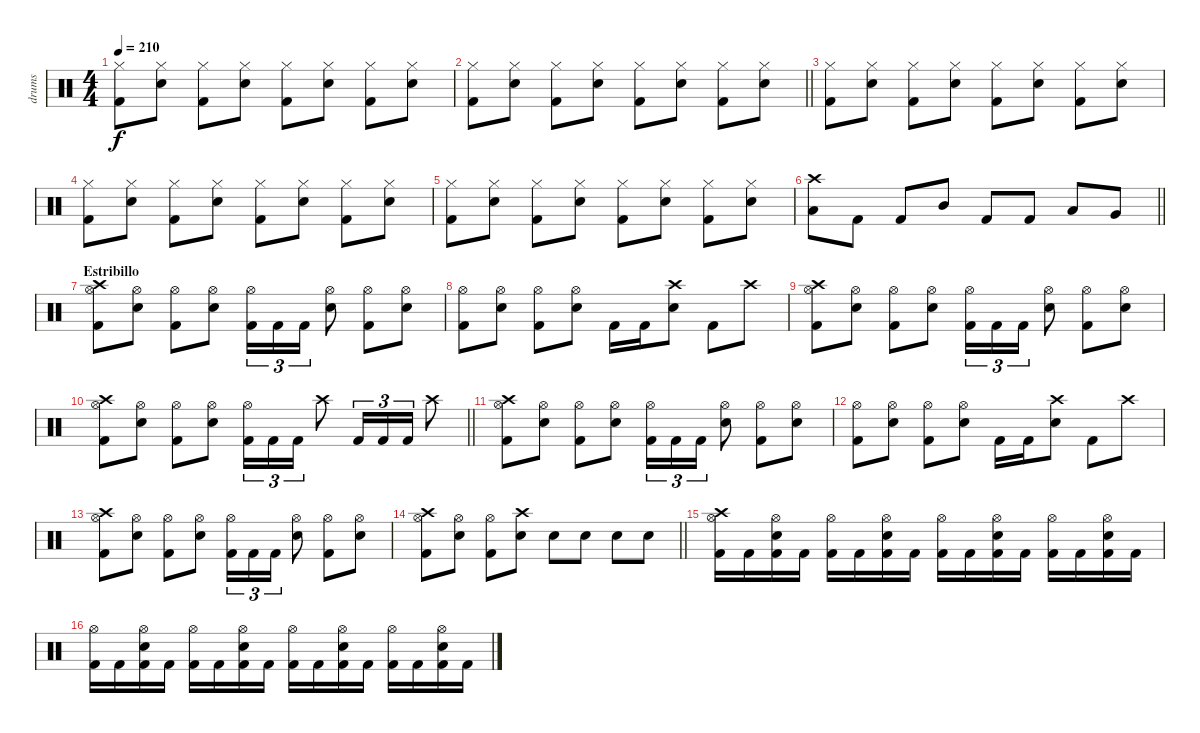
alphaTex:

\track ("drums" "drums") {instrument percussion}
\staff {score}
\articulation defaults
\ts (4 4)
\tempo 210
\clef neutral
\ks c
("Hi-Hat (closed)" "Kick (hit) 2").8{dy f} ("Hi-Hat (closed)" "Electric Snare (hit)").8 ("Hi-Hat (closed)" "Kick (hit) 2").8 ("Hi-Hat (closed)" "Electric Snare (hit)").8 ("Hi-Hat (closed)" "Kick (hit) 2").8 ("Hi-Hat (closed)" "Electric Snare (hit)").8 ("Hi-Hat (closed)" "Kick (hit) 2").8 ("Hi-Hat (closed)" "Electric Snare (hit)").8 |
\barLineRight lightlight
("Hi-Hat (closed)" "Kick (hit) 2").8 ("Hi-Hat (closed)" "Electric Snare (hit)").8 ("Hi-Hat (closed)" "Kick (hit) 2").8 ("Hi-Hat (closed)" "Electric Snare (hit)").8 ("Hi-Hat (closed)" "Kick (hit) 2").8 ("Hi-Hat (closed)" "Electric Snare (hit)").8 ("Hi-Hat (closed)" "Kick (hit) 2").8 ("Hi-Hat (closed)" "Electric Snare (hit)").8 |
("Hi-Hat (closed)" "Kick (hit) 2").8 ("Hi-Hat (closed)" "Electric Snare (hit)").8 ("Hi-Hat (closed)" "Kick (hit) 2").8 ("Hi-Hat (closed)" "Electric Snare (hit)").8 ("Hi-Hat (closed)" "Kick (hit) 2").8 ("Hi-Hat (closed)" "Electric Snare (hit)").8 ("Hi-Hat (closed)" "Kick (hit) 2").8 ("Hi-Hat (closed)" "Electric Snare (hit)").8 |
("Hi-Hat (closed)" "Kick (hit) 2").8 ("Hi-Hat (closed)" "Electric Snare (hit)").8 ("Hi-Hat (closed)" "Kick (hit) 2").8 ("Hi-Hat (closed)" "Electric Snare (hit)").8 ("Hi-Hat (closed)" "Kick (hit) 2").8 ("Hi-Hat (closed)" "Electric Snare (hit)").8 ("Hi-Hat (closed)" "Kick (hit) 2").8 ("Hi-Hat (closed)" "Electric Snare (hit)").8 |
("Hi-Hat (closed)" "Kick (hit) 2").8 ("Hi-Hat (closed)" "Electric Snare (hit)").8 ("Hi-Hat (closed)" "Kick (hit) 2").8 ("Hi-Hat (closed)" "Electric Snare (hit)").8 ("Hi-Hat (closed)" "Kick (hit) 2").8 ("Hi-Hat (closed)" "Electric Snare (hit)").8 ("Hi-Hat (closed)" "Kick (hit) 2").8 ("Hi-Hat (closed)" "Electric Snare (hit)").8 |
\barLineRight lightlight
("Crash high (hit)" "Low Tom (hit)").8 "Kick (hit) 2".8 "Kick (hit) 2".8 "Mid Tom (hit)".8 "Kick (hit) 2".8 "Kick (hit) 2".8 "Low Tom (hit)".8 "Very Low Tom (hit)".8 |
\section ("" "Estribillo")
("Crash high (hit)" "Hi-Hat (open)" "Kick (hit) 2").8 ("Hi-Hat (open)" "Electric Snare (hit)").8 ("Hi-Hat (open)" "Kick (hit) 2").8 ("Hi-Hat (open)" "Electric Snare (hit)").8 ("Hi-Hat (open)" "Kick (hit) 2").16{tu (3 2)} "Kick (hit) 2".16{tu (3 2)} "Kick (hit) 2".16{tu (3 2)} ("Hi-Hat (open)" "Electric Snare (hit)").8 ("Hi-Hat (open)" "Kick (hit) 2").8 ("Hi-Hat (open)" "Electric Snare (hit)").8 |
("Hi-Hat (open)" "Kick (hit) 2").8 ("Hi-Hat (open)" "Electric Snare (hit)").8 ("Hi-Hat (open)" "Kick (hit) 2").8 ("Hi-Hat (open)" "Electric Snare (hit)").8 "Kick (hit) 2".16 "Kick (hit) 2".16 ("Crash high (hit)" "Electric Snare (hit)").8 "Kick (hit) 2".8 "Crash high (hit)".8 |
("Crash high (hit)" "Hi-Hat (open)" "Kick (hit) 2").8 ("Hi-Hat (open)" "Electric Snare (hit)").8 ("Hi-Hat (open)" "Kick (hit) 2").8 ("Hi-Hat (open)" "Electric Snare (hit)").8 ("Hi-Hat (open)" "Kick (hit) 2").16{tu (3 2)} "Kick (hit) 2".16{tu (3 2)} "Kick (hit) 2".16{tu (3 2)} ("Hi-Hat (open)" "Electric Snare (hit)").8 ("Hi-Hat (open)" "Kick (hit) 2").8 ("Hi-Hat (open)" "Electric Snare (hit)").8 |
\barLineRight lightlight
("Crash high (hit)" "Hi-Hat (open)" "Kick (hit) 2").8 ("Hi-Hat (open)" "Electric Snare (hit)").8 ("Hi-Hat (open)" "Kick (hit) 2").8 ("Hi-Hat (open)" "Electric Snare (hit)").8 ("Hi-Hat (open)" "Kick (hit) 2").16{tu (3 2)} "Kick (hit) 2".16{tu (3 2)} "Kick (hit) 2".16{tu (3 2)} "Crash high (hit)".8 "Kick (hit) 2".16{tu (3 2)} "Kick (hit) 2".16{tu (3 2)} "Kick (hit) 2".16{tu (3 2)} "Crash high (hit)".8 |
("Crash high (hit)" "Hi-Hat (open)" "Kick (hit) 2").8 ("Hi-Hat (open)" "Electric Snare (hit)").8 ("Hi-Hat (open)" "Kick (hit) 2").8 ("Hi-Hat (open)" "Electric Snare (hit)").8 ("Hi-Hat (open)" "Kick (hit) 2").16{tu (3 2)} "Kick (hit) 2".16{tu (3 2)} "Kick (hit) 2".16{tu (3 2)} ("Hi-Hat (open)" "Electric Snare (hit)").8 ("Hi-Hat (open)" "Kick (hit) 2").8 ("Hi-Hat (open)" "Electric Snare (hit)").8 |
("Hi-Hat (open)" "Kick (hit) 2").8 ("Hi-Hat (open)" "Electric Snare (hit)").8 ("Hi-Hat (open)" "Kick (hit) 2").8 ("Hi-Hat (open)" "Electric Snare (hit)").8 "Kick (hit) 2".16 "Kick (hit) 2".16 ("Crash high (hit)" "Electric Snare (hit)").8 "Kick (hit) 2".8 "Crash high (hit)".8 |
("Crash high (hit)" "Hi-Hat (open)" "Kick (hit) 2").8 ("Hi-Hat (open)" "Electric Snare (hit)").8 ("Hi-Hat (open)" "Kick (hit) 2").8 ("Hi-Hat (open)" "Electric Snare (hit)").8 ("Hi-Hat (open)" "Kick (hit) 2").16{tu (3 2)} "Kick (hit) 2".16{tu (3 2)} "Kick (hit) 2".16{tu (3 2)} ("Hi-Hat (open)" "Electric Snare (hit)").8 ("Hi-Hat (open)" "Kick (hit) 2").8 ("Hi-Hat (open)" "Electric Snare (hit)").8 |
\barLineRight lightlight
("Crash high (hit)" "Hi-Hat (open)" "Kick (hit) 2").8 ("Hi-Hat (open)" "Electric Snare (hit)").8 ("Hi-Hat (open)" "Kick (hit) 2").8 ("Crash high (hit)" "Electric Snare (hit)").8 "Electric Snare (hit)".8 "Electric Snare (hit)".8 "Electric Snare (hit)".8 "Electric Snare (hit)".8 |
("Crash high (hit)" "Hi-Hat (open)" "Kick (hit) 2").16 "Kick (hit) 2".16 ("Hi-Hat (open)" "Electric Snare (hit)" "Kick (hit) 2").16 "Kick (hit) 2".16 ("Hi-Hat (open)" "Kick (hit) 2").16 "Kick (hit) 2".16 ("Hi-Hat (open)" "Electric Snare (hit)" "Kick (hit) 2").16 "Kick (hit) 2".16 ("Hi-Hat (open)" "Kick (hit) 2").16 "Kick (hit) 2".16 ("Hi-Hat (open)" "Electric Snare (hit)" "Kick (hit) 2").16 "Kick (hit) 2".16 ("Hi-Hat (open)" "Kick (hit) 2").16 "Kick (hit) 2".16 ("Hi-Hat (open)" "Electric Snare (hit)" "Kick (hit) 2").16 "Kick (hit) 2".16 |
("Hi-Hat (open)" "Kick (hit) 2").16 "Kick (hit) 2".16 ("Hi-Hat (open)" "Electric Snare (hit)" "Kick (hit) 2").16 "Kick (hit) 2".16 ("Hi-Hat (open)" "Kick (hit) 2").16 "Kick (hit) 2".16 ("Hi-Hat (open)" "Electric Snare (hit)" "Kick (hit) 2").16 "Kick (hit) 2".16 ("Hi-Hat (open)" "Kick (hit) 2").16 "Kick (hit) 2".16 ("Hi-Hat (open)" "Electric Snare (hit)" "Kick (hit) 2").16 "Kick (hit) 2".16 ("Hi-Hat (open)" "Kick (hit) 2").16 "Kick (hit) 2".16 ("Hi-Hat (open)" "Electric Snare (hit)" "Kick (hit) 2").16 "Kick (hit) 2".16
